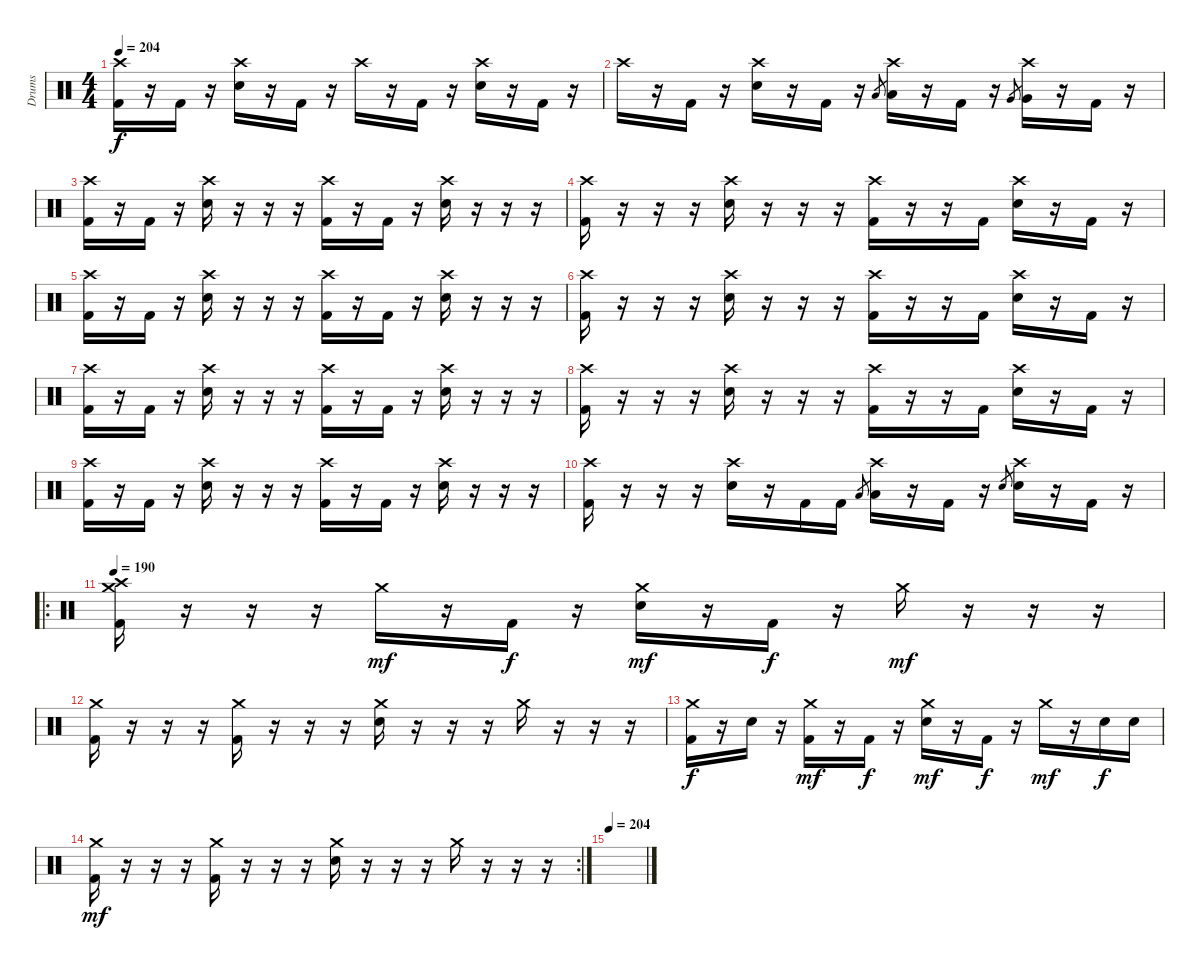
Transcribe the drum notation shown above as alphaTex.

\track ("Drums" "Drums") {instrument percussion}
\staff {score}
\articulation defaults
\ts (4 4)
\tempo 204
\clef neutral
\ks c
("Crash high (hit)" "Kick (hit) 2").16{dy f} r.16 "Kick (hit) 2".16 r.16 ("Crash high (hit)" "Snare (hit) 2").16 r.16 "Kick (hit) 2".16 r.16 "Crash high (hit)".16 r.16 "Kick (hit) 2".16 r.16 ("Crash high (hit)" "Snare (hit) 2").16 r.16 "Kick (hit) 2".16 r.16 |
"Crash high (hit)".16 r.16 "Kick (hit) 2".16 r.16 ("Crash high (hit)" "Snare (hit) 2").16 r.16 "Kick (hit) 2".16 r.16 "Low Tom (hit)".8{gr} ("Crash high (hit)" "Low Tom (hit)").16 r.16 "Kick (hit) 2".16 r.16 "Very Low Tom (hit)".8{gr} ("Crash high (hit)" "Very Low Tom (hit)").16 r.16 "Kick (hit) 2".16 r.16 |
("Crash high (hit)" "Kick (hit) 2").16 r.16 "Kick (hit) 2".16 r.16 ("Crash high (hit)" "Snare (hit) 2").16 r.16 r.16 r.16 ("Crash high (hit)" "Kick (hit) 2").16 r.16 "Kick (hit) 2".16 r.16 ("Crash high (hit)" "Snare (hit) 2").16 r.16 r.16 r.16 |
("Crash high (hit)" "Kick (hit) 2").16 r.16 r.16 r.16 ("Crash high (hit)" "Snare (hit) 2").16 r.16 r.16 r.16 ("Crash high (hit)" "Kick (hit) 2").16 r.16 r.16 "Kick (hit) 2".16 ("Crash high (hit)" "Snare (hit) 2").16 r.16 "Kick (hit) 2".16 r.16 |
("Crash high (hit)" "Kick (hit) 2").16 r.16 "Kick (hit) 2".16 r.16 ("Crash high (hit)" "Snare (hit) 2").16 r.16 r.16 r.16 ("Crash high (hit)" "Kick (hit) 2").16 r.16 "Kick (hit) 2".16 r.16 ("Crash high (hit)" "Snare (hit) 2").16 r.16 r.16 r.16 |
("Crash high (hit)" "Kick (hit) 2").16 r.16 r.16 r.16 ("Crash high (hit)" "Snare (hit) 2").16 r.16 r.16 r.16 ("Crash high (hit)" "Kick (hit) 2").16 r.16 r.16 "Kick (hit) 2".16 ("Crash high (hit)" "Snare (hit) 2").16 r.16 "Kick (hit) 2".16 r.16 |
("Crash high (hit)" "Kick (hit) 2").16 r.16 "Kick (hit) 2".16 r.16 ("Crash high (hit)" "Snare (hit) 2").16 r.16 r.16 r.16 ("Crash high (hit)" "Kick (hit) 2").16 r.16 "Kick (hit) 2".16 r.16 ("Crash high (hit)" "Snare (hit) 2").16 r.16 r.16 r.16 |
("Crash high (hit)" "Kick (hit) 2").16 r.16 r.16 r.16 ("Crash high (hit)" "Snare (hit) 2").16 r.16 r.16 r.16 ("Crash high (hit)" "Kick (hit) 2").16 r.16 r.16 "Kick (hit) 2".16 ("Crash high (hit)" "Snare (hit) 2").16 r.16 "Kick (hit) 2".16 r.16 |
("Crash high (hit)" "Kick (hit) 2").16 r.16 "Kick (hit) 2".16 r.16 ("Crash high (hit)" "Snare (hit) 2").16 r.16 r.16 r.16 ("Crash high (hit)" "Kick (hit) 2").16 r.16 "Kick (hit) 2".16 r.16 ("Crash high (hit)" "Snare (hit) 2").16 r.16 r.16 r.16 |
("Crash high (hit)" "Kick (hit) 2").16 r.16 r.16 r.16 ("Crash high (hit)" "Snare (hit) 2").16 r.16 "Kick (hit) 2".16 "Kick (hit) 2".16 "Low Tom (hit)".8{gr} ("Crash high (hit)" "Low Tom (hit)").16 r.16 "Kick (hit) 2".16 r.16 "Snare (hit) 2".8{gr} ("Crash high (hit)" "Snare (hit) 2").16 r.16 "Kick (hit) 2".16 r.16 |
\ro
\tempo 190
("Crash high (hit)" "Crash medium (hit)" "Kick (hit) 2").16 r.16 r.16 r.16 "Crash medium (hit)".16{dy mf} r.16 "Kick (hit) 2".16{dy f} r.16 ("Crash medium (hit)" "Snare (hit) 2").16{dy mf} r.16 "Kick (hit) 2".16{dy f} r.16 "Crash medium (hit)".16{dy mf} r.16 r.16 r.16 |
("Crash medium (hit)" "Kick (hit) 2").16 r.16 r.16 r.16 ("Crash medium (hit)" "Kick (hit) 2").16 r.16 r.16 r.16 ("Crash medium (hit)" "Snare (hit) 2").16 r.16 r.16 r.16 "Crash medium (hit)".16 r.16 r.16 r.16 |
("Crash medium (hit)" "Kick (hit) 2").16{dy f} r.16 "Snare (hit) 2".16 r.16 ("Crash medium (hit)" "Kick (hit) 2").16{dy mf} r.16 "Kick (hit) 2".16{dy f} r.16 ("Crash medium (hit)" "Snare (hit) 2").16{dy mf} r.16 "Kick (hit) 2".16{dy f} r.16 "Crash medium (hit)".16{dy mf} r.16 "Snare (hit) 2".16{dy f} "Snare (hit) 2".16 |
\rc 2
("Crash medium (hit)" "Kick (hit) 2").16{dy mf} r.16 r.16 r.16 ("Crash medium (hit)" "Kick (hit) 2").16 r.16 r.16 r.16 ("Crash medium (hit)" "Snare (hit) 2").16 r.16 r.16 r.16 "Crash medium (hit)".16 r.16 r.16 r.16 |
\tempo 204
